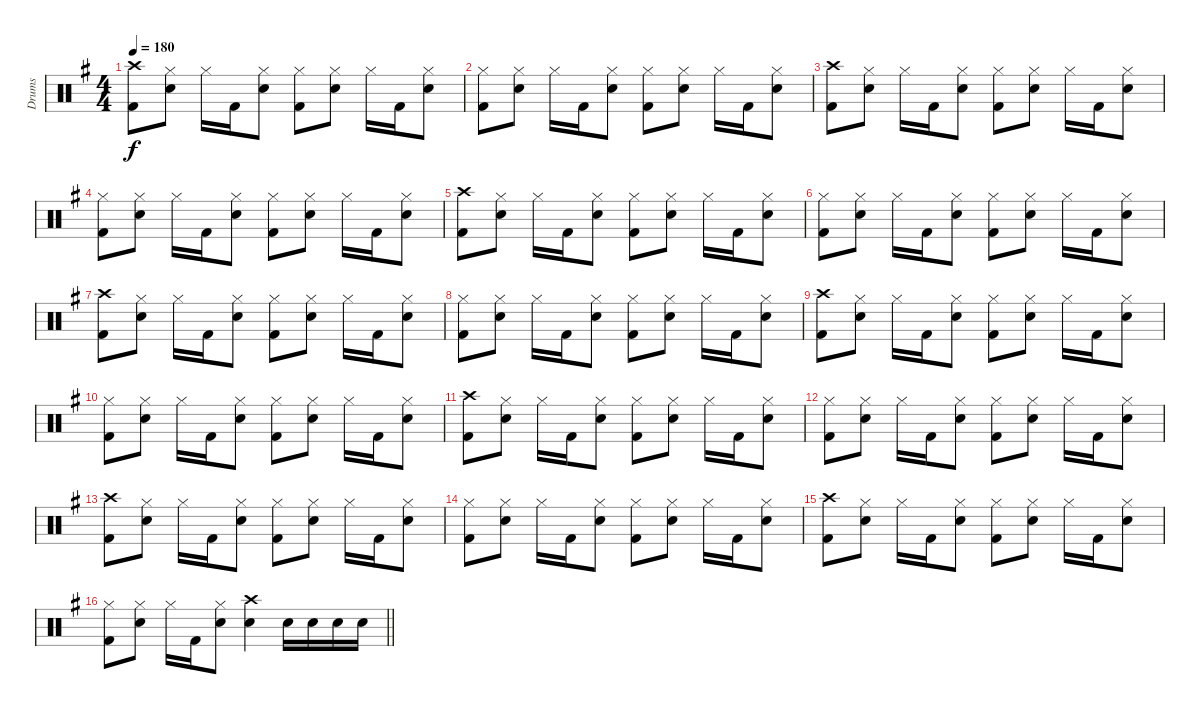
\track ("Drums" "Drums") {instrument percussion}
\staff {score}
\articulation defaults
\ts (4 4)
\tempo 180
\clef neutral
\ks g
("Crash high (hit)" "Kick (hit) 2").8{dy f} ("Hi-Hat (closed)" "Snare (hit) 2").8 "Hi-Hat (closed)".16 "Kick (hit) 2".16 ("Hi-Hat (closed)" "Snare (hit) 2").8 ("Hi-Hat (closed)" "Kick (hit) 2").8 ("Hi-Hat (closed)" "Snare (hit) 2").8 "Hi-Hat (closed)".16 "Kick (hit) 2".16 ("Hi-Hat (closed)" "Snare (hit) 2").8 |
("Hi-Hat (closed)" "Kick (hit) 2").8 ("Hi-Hat (closed)" "Snare (hit) 2").8 "Hi-Hat (closed)".16 "Kick (hit) 2".16 ("Hi-Hat (closed)" "Snare (hit) 2").8 ("Hi-Hat (closed)" "Kick (hit) 2").8 ("Hi-Hat (closed)" "Snare (hit) 2").8 "Hi-Hat (closed)".16 "Kick (hit) 2".16 ("Hi-Hat (closed)" "Snare (hit) 2").8 |
("Crash high (hit)" "Kick (hit) 2").8 ("Hi-Hat (closed)" "Snare (hit) 2").8 "Hi-Hat (closed)".16 "Kick (hit) 2".16 ("Hi-Hat (closed)" "Snare (hit) 2").8 ("Hi-Hat (closed)" "Kick (hit) 2").8 ("Hi-Hat (closed)" "Snare (hit) 2").8 "Hi-Hat (closed)".16 "Kick (hit) 2".16 ("Hi-Hat (closed)" "Snare (hit) 2").8 |
("Hi-Hat (closed)" "Kick (hit) 2").8 ("Hi-Hat (closed)" "Snare (hit) 2").8 "Hi-Hat (closed)".16 "Kick (hit) 2".16 ("Hi-Hat (closed)" "Snare (hit) 2").8 ("Hi-Hat (closed)" "Kick (hit) 2").8 ("Hi-Hat (closed)" "Snare (hit) 2").8 "Hi-Hat (closed)".16 "Kick (hit) 2".16 ("Hi-Hat (closed)" "Snare (hit) 2").8 |
("Crash high (hit)" "Kick (hit) 2").8 ("Hi-Hat (closed)" "Snare (hit) 2").8 "Hi-Hat (closed)".16 "Kick (hit) 2".16 ("Hi-Hat (closed)" "Snare (hit) 2").8 ("Hi-Hat (closed)" "Kick (hit) 2").8 ("Hi-Hat (closed)" "Snare (hit) 2").8 "Hi-Hat (closed)".16 "Kick (hit) 2".16 ("Hi-Hat (closed)" "Snare (hit) 2").8 |
("Hi-Hat (closed)" "Kick (hit) 2").8 ("Hi-Hat (closed)" "Snare (hit) 2").8 "Hi-Hat (closed)".16 "Kick (hit) 2".16 ("Hi-Hat (closed)" "Snare (hit) 2").8 ("Hi-Hat (closed)" "Kick (hit) 2").8 ("Hi-Hat (closed)" "Snare (hit) 2").8 "Hi-Hat (closed)".16 "Kick (hit) 2".16 ("Hi-Hat (closed)" "Snare (hit) 2").8 |
("Crash high (hit)" "Kick (hit) 2").8 ("Hi-Hat (closed)" "Snare (hit) 2").8 "Hi-Hat (closed)".16 "Kick (hit) 2".16 ("Hi-Hat (closed)" "Snare (hit) 2").8 ("Hi-Hat (closed)" "Kick (hit) 2").8 ("Hi-Hat (closed)" "Snare (hit) 2").8 "Hi-Hat (closed)".16 "Kick (hit) 2".16 ("Hi-Hat (closed)" "Snare (hit) 2").8 |
("Hi-Hat (closed)" "Kick (hit) 2").8 ("Hi-Hat (closed)" "Snare (hit) 2").8 "Hi-Hat (closed)".16 "Kick (hit) 2".16 ("Hi-Hat (closed)" "Snare (hit) 2").8 ("Hi-Hat (closed)" "Kick (hit) 2").8 ("Hi-Hat (closed)" "Snare (hit) 2").8 "Hi-Hat (closed)".16 "Kick (hit) 2".16 ("Hi-Hat (closed)" "Snare (hit) 2").8 |
("Crash high (hit)" "Kick (hit) 2").8 ("Hi-Hat (closed)" "Snare (hit) 2").8 "Hi-Hat (closed)".16 "Kick (hit) 2".16 ("Hi-Hat (closed)" "Snare (hit) 2").8 ("Hi-Hat (closed)" "Kick (hit) 2").8 ("Hi-Hat (closed)" "Snare (hit) 2").8 "Hi-Hat (closed)".16 "Kick (hit) 2".16 ("Hi-Hat (closed)" "Snare (hit) 2").8 |
("Hi-Hat (closed)" "Kick (hit) 2").8 ("Hi-Hat (closed)" "Snare (hit) 2").8 "Hi-Hat (closed)".16 "Kick (hit) 2".16 ("Hi-Hat (closed)" "Snare (hit) 2").8 ("Hi-Hat (closed)" "Kick (hit) 2").8 ("Hi-Hat (closed)" "Snare (hit) 2").8 "Hi-Hat (closed)".16 "Kick (hit) 2".16 ("Hi-Hat (closed)" "Snare (hit) 2").8 |
("Crash high (hit)" "Kick (hit) 2").8 ("Hi-Hat (closed)" "Snare (hit) 2").8 "Hi-Hat (closed)".16 "Kick (hit) 2".16 ("Hi-Hat (closed)" "Snare (hit) 2").8 ("Hi-Hat (closed)" "Kick (hit) 2").8 ("Hi-Hat (closed)" "Snare (hit) 2").8 "Hi-Hat (closed)".16 "Kick (hit) 2".16 ("Hi-Hat (closed)" "Snare (hit) 2").8 |
("Hi-Hat (closed)" "Kick (hit) 2").8 ("Hi-Hat (closed)" "Snare (hit) 2").8 "Hi-Hat (closed)".16 "Kick (hit) 2".16 ("Hi-Hat (closed)" "Snare (hit) 2").8 ("Hi-Hat (closed)" "Kick (hit) 2").8 ("Hi-Hat (closed)" "Snare (hit) 2").8 "Hi-Hat (closed)".16 "Kick (hit) 2".16 ("Hi-Hat (closed)" "Snare (hit) 2").8 |
("Crash high (hit)" "Kick (hit) 2").8 ("Hi-Hat (closed)" "Snare (hit) 2").8 "Hi-Hat (closed)".16 "Kick (hit) 2".16 ("Hi-Hat (closed)" "Snare (hit) 2").8 ("Hi-Hat (closed)" "Kick (hit) 2").8 ("Hi-Hat (closed)" "Snare (hit) 2").8 "Hi-Hat (closed)".16 "Kick (hit) 2".16 ("Hi-Hat (closed)" "Snare (hit) 2").8 |
("Hi-Hat (closed)" "Kick (hit) 2").8 ("Hi-Hat (closed)" "Snare (hit) 2").8 "Hi-Hat (closed)".16 "Kick (hit) 2".16 ("Hi-Hat (closed)" "Snare (hit) 2").8 ("Hi-Hat (closed)" "Kick (hit) 2").8 ("Hi-Hat (closed)" "Snare (hit) 2").8 "Hi-Hat (closed)".16 "Kick (hit) 2".16 ("Hi-Hat (closed)" "Snare (hit) 2").8 |
("Crash high (hit)" "Kick (hit) 2").8 ("Hi-Hat (closed)" "Snare (hit) 2").8 "Hi-Hat (closed)".16 "Kick (hit) 2".16 ("Hi-Hat (closed)" "Snare (hit) 2").8 ("Hi-Hat (closed)" "Kick (hit) 2").8 ("Hi-Hat (closed)" "Snare (hit) 2").8 "Hi-Hat (closed)".16 "Kick (hit) 2".16 ("Hi-Hat (closed)" "Snare (hit) 2").8 |
\barLineRight lightlight
("Hi-Hat (closed)" "Kick (hit) 2").8 ("Hi-Hat (closed)" "Snare (hit) 2").8 "Hi-Hat (closed)".16 "Kick (hit) 2".16 ("Hi-Hat (closed)" "Snare (hit) 2").8 ("Crash high (hit)" "Snare (hit) 2").4 "Snare (hit) 2".16 "Snare (hit) 2".16 "Snare (hit) 2".16 "Snare (hit) 2".16
